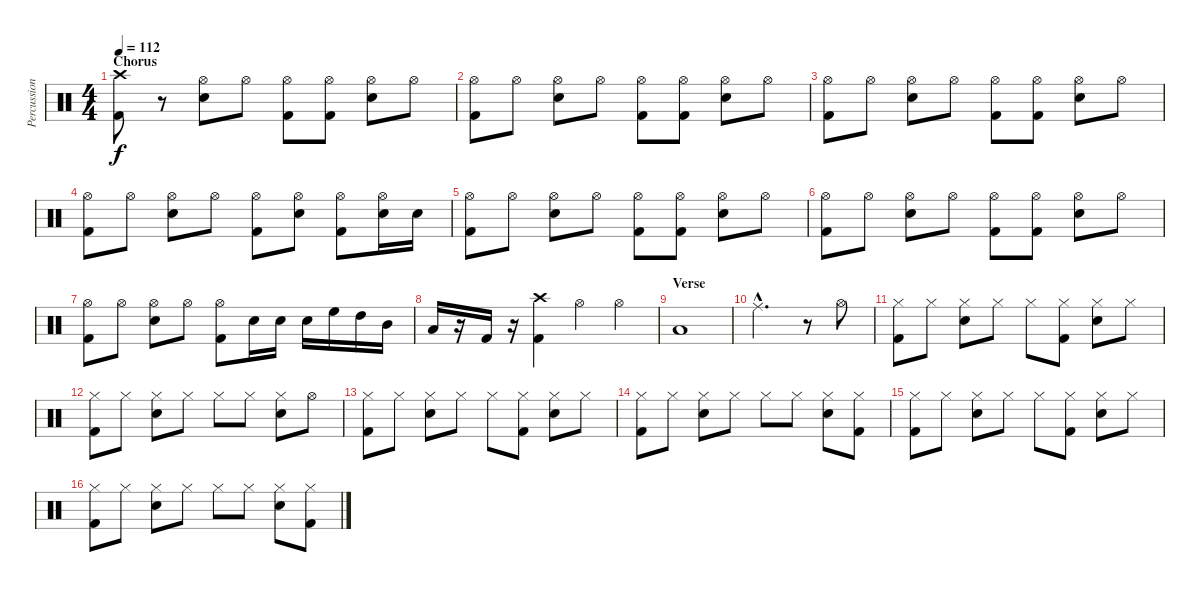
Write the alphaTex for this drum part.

\track ("Percussion" "Percussion") {instrument percussion}
\staff {score}
\articulation defaults
\ts (4 4)
\section ("" "Chorus")
\tempo 112
\clef neutral
\ks c
("Crash high (hit)" "Kick (hit) 2").8{dy f} r.8 ("Hi-Hat (open)" "Snare (hit) 2").8 "Hi-Hat (open)".8 ("Hi-Hat (open)" "Kick (hit) 2").8 ("Hi-Hat (open)" "Kick (hit) 2").8 ("Hi-Hat (open)" "Snare (hit) 2").8 "Hi-Hat (open)".8 |
("Hi-Hat (open)" "Kick (hit) 2").8 "Hi-Hat (open)".8 ("Hi-Hat (open)" "Snare (hit) 2").8 "Hi-Hat (open)".8 ("Hi-Hat (open)" "Kick (hit) 2").8 ("Hi-Hat (open)" "Kick (hit) 2").8 ("Hi-Hat (open)" "Snare (hit) 2").8 "Hi-Hat (open)".8 |
("Hi-Hat (open)" "Kick (hit) 2").8 "Hi-Hat (open)".8 ("Hi-Hat (open)" "Snare (hit) 2").8 "Hi-Hat (open)".8 ("Hi-Hat (open)" "Kick (hit) 2").8 ("Hi-Hat (open)" "Kick (hit) 2").8 ("Hi-Hat (open)" "Snare (hit) 2").8 "Hi-Hat (open)".8 |
("Hi-Hat (open)" "Kick (hit) 2").8 "Hi-Hat (open)".8 ("Hi-Hat (open)" "Snare (hit) 2").8 "Hi-Hat (open)".8 ("Hi-Hat (open)" "Kick (hit) 2").8 ("Hi-Hat (open)" "Snare (hit) 2").8 ("Hi-Hat (open)" "Kick (hit) 2").8 ("Hi-Hat (open)" "Snare (hit) 2").16 "Snare (hit) 2".16 |
("Hi-Hat (open)" "Kick (hit) 2").8 "Hi-Hat (open)".8 ("Hi-Hat (open)" "Snare (hit) 2").8 "Hi-Hat (open)".8 ("Hi-Hat (open)" "Kick (hit) 2").8 ("Hi-Hat (open)" "Kick (hit) 2").8 ("Hi-Hat (open)" "Snare (hit) 2").8 "Hi-Hat (open)".8 |
("Hi-Hat (open)" "Kick (hit) 2").8 "Hi-Hat (open)".8 ("Hi-Hat (open)" "Snare (hit) 2").8 "Hi-Hat (open)".8 ("Hi-Hat (open)" "Kick (hit) 2").8 ("Hi-Hat (open)" "Kick (hit) 2").8 ("Hi-Hat (open)" "Snare (hit) 2").8 "Hi-Hat (open)".8 |
("Hi-Hat (open)" "Kick (hit) 2").8 "Hi-Hat (open)".8 ("Hi-Hat (open)" "Snare (hit) 2").8 "Hi-Hat (open)".8 ("Hi-Hat (open)" "Kick (hit) 2").8 "Snare (hit) 2".16 "Snare (hit) 2".16 "Snare (hit) 2".16 "High Floor Tom (hit)".16 "High Tom (hit)".16 "Mid Tom (hit)".16 |
"Low Tom (hit)".16 r.16 "Kick (hit) 2".16 r.16 ("Crash high (hit)" "Kick (hit) 2").4 "Hi-Hat (open)".4 "Hi-Hat (open)".4 |
\section ("" "Verse")
"Low Tom (hit)".1 |
"Ride (middle)"{hac}.2{d} r.8 "Hi-Hat (open)".8 |
("Hi-Hat (closed)" "Kick (hit) 2").8 "Hi-Hat (closed)".8 ("Hi-Hat (closed)" "Snare (hit) 2").8 "Hi-Hat (closed)".8 "Hi-Hat (closed)".8 ("Hi-Hat (closed)" "Kick (hit) 2").8 ("Hi-Hat (closed)" "Snare (hit) 2").8 "Hi-Hat (closed)".8 |
("Hi-Hat (closed)" "Kick (hit) 2").8 "Hi-Hat (closed)".8 ("Hi-Hat (closed)" "Snare (hit) 2").8 "Hi-Hat (closed)".8 "Hi-Hat (closed)".8 "Hi-Hat (closed)".8 ("Hi-Hat (closed)" "Snare (hit) 2").8 "Hi-Hat (open)".8 |
("Hi-Hat (closed)" "Kick (hit) 2").8 "Hi-Hat (closed)".8 ("Hi-Hat (closed)" "Snare (hit) 2").8 "Hi-Hat (closed)".8 "Hi-Hat (closed)".8 ("Hi-Hat (closed)" "Kick (hit) 2").8 ("Hi-Hat (closed)" "Snare (hit) 2").8 "Hi-Hat (closed)".8 |
("Hi-Hat (closed)" "Kick (hit) 2").8 "Hi-Hat (closed)".8 ("Hi-Hat (closed)" "Snare (hit) 2").8 "Hi-Hat (closed)".8 "Hi-Hat (closed)".8 "Hi-Hat (closed)".8 ("Hi-Hat (closed)" "Snare (hit) 2").8 ("Hi-Hat (closed)" "Kick (hit) 2").8 |
("Hi-Hat (closed)" "Kick (hit) 2").8 "Hi-Hat (closed)".8 ("Hi-Hat (closed)" "Snare (hit) 2").8 "Hi-Hat (closed)".8 "Hi-Hat (closed)".8 ("Hi-Hat (closed)" "Kick (hit) 2").8 ("Hi-Hat (closed)" "Snare (hit) 2").8 "Hi-Hat (closed)".8 |
("Hi-Hat (closed)" "Kick (hit) 2").8 "Hi-Hat (closed)".8 ("Hi-Hat (closed)" "Snare (hit) 2").8 "Hi-Hat (closed)".8 "Hi-Hat (closed)".8 "Hi-Hat (closed)".8 ("Hi-Hat (closed)" "Snare (hit) 2").8 ("Hi-Hat (closed)" "Kick (hit) 2").8
